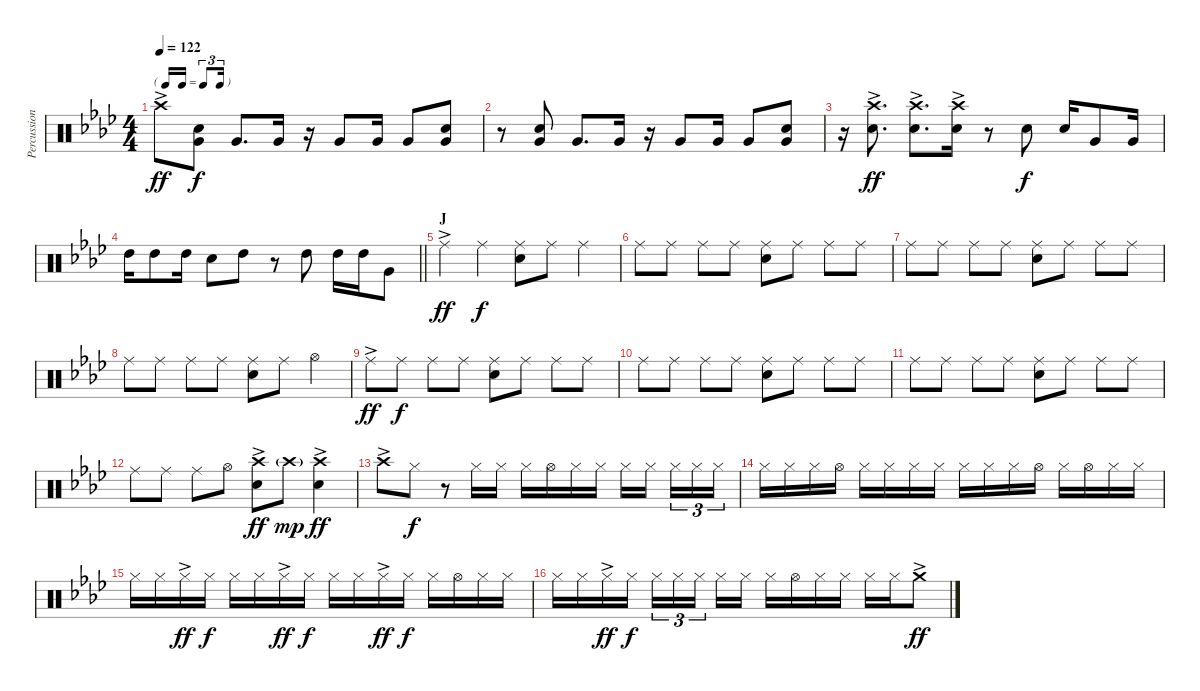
\track ("Percussion Hand" "Percussion") {instrument percussion}
\staff {score}
\articulation defaults
\ts (4 4)
\tf triplet16th
\tempo 122
\clef neutral
\ks ab "Crash high (hit)"{ac}.8{dy ff}
("Snare (hit) 2" "Very Low Tom (hit)").8{dy f} "Very Low Tom (hit)".8{d} "Very Low Tom (hit)".16 r.16 "Very Low Tom (hit)".8 "Very Low Tom (hit)".16 "Very Low Tom (hit)".8 ("Snare (hit) 2" "Very Low Tom (hit)").8 |
r.8 ("Snare (hit) 2" "Very Low Tom (hit)").8 "Very Low Tom (hit)".8{d} "Very Low Tom (hit)".16 r.16 "Very Low Tom (hit)".8 "Very Low Tom (hit)".16 "Very Low Tom (hit)".8 ("Snare (hit) 2" "Very Low Tom (hit)").8 |
r.16 ("Crash high (hit)" "Snare (hit) 2"{ac}).8{d dy ff} ("Crash high (hit)" "Snare (hit) 2"{ac}).8{d} ("Crash high (hit)" "Snare (hit) 2"{ac}).16 r.8 "Snare (hit) 2".8{dy f} "Snare (hit) 2".16 "Very Low Tom (hit)".8 "Very Low Tom (hit)".16 |
\barLineRight lightlight "High Tom (hit)".16 "High Tom (hit)".8 "High Tom (hit)".16 "Snare (hit) 2".8 "High Tom (hit)".8
r.8 "High Tom (hit)".8 "High Tom (hit)".16 "High Tom (hit)".16 "Very Low Tom (hit)".8 |
\section ("" "J")
"Ride (middle)"{ac}.4{dy ff} "Ride (middle)".4{dy f} ("Ride (middle)" "Snare (hit) 2").8 "Ride (middle)".8 "Ride (middle)".4 |
"Ride (middle)".8 "Ride (middle)".8 "Ride (middle)".8 "Ride (middle)".8 ("Ride (middle)" "Snare (hit) 2").8 "Ride (middle)".8 "Ride (middle)".8 "Ride (middle)".8 |
"Ride (middle)".8 "Ride (middle)".8 "Ride (middle)".8 "Ride (middle)".8 ("Ride (middle)" "Snare (hit) 2").8 "Ride (middle)".8 "Ride (middle)".8 "Ride (middle)".8 |
"Ride (middle)".8 "Ride (middle)".8 "Ride (middle)".8 "Ride (middle)".8 ("Ride (middle)" "Snare (hit) 2").8 "Ride (middle)".8 "Hi-Hat (open)".4 |
"Ride (middle)"{ac}.8{dy ff} "Ride (middle)".8{dy f} "Ride (middle)".8 "Ride (middle)".8 ("Ride (middle)" "Snare (hit) 2").8 "Ride (middle)".8 "Ride (middle)".8 "Ride (middle)".8 |
"Ride (middle)".8 "Ride (middle)".8 "Ride (middle)".8 "Ride (middle)".8 ("Ride (middle)" "Snare (hit) 2").8 "Ride (middle)".8 "Ride (middle)".8 "Ride (middle)".8 |
"Ride (middle)".8 "Ride (middle)".8 "Ride (middle)".8 "Ride (middle)".8 ("Ride (middle)" "Snare (hit) 2").8 "Ride (middle)".8 "Ride (middle)".8 "Ride (middle)".8 |
"Ride (middle)".8 "Ride (middle)".8 "Ride (middle)".8 "Hi-Hat (open)".8 ("Crash high (hit)" "Snare (hit) 2"{ac}).8{dy ff} "Crash high (hit)"{g}.8{dy mp} ("Crash high (hit)" "Snare (hit) 2"{ac}).4{dy ff} |
"Crash high (hit)"{ac}.8 "Hi-Hat (closed)".8{dy f} r.8 "Hi-Hat (closed)".16 "Hi-Hat (closed)".16 "Hi-Hat (closed)".16 "Hi-Hat (open)".16 "Hi-Hat (closed)".16 "Hi-Hat (closed)".16 "Hi-Hat (closed)".16 "Hi-Hat (closed)".16{beam splitsecondary} "Hi-Hat (closed)".16{tu (3 2)} "Hi-Hat (closed)".16{tu (3 2)} "Hi-Hat (closed)".16{tu (3 2)} |
"Hi-Hat (closed)".16 "Hi-Hat (closed)".16 "Hi-Hat (closed)".16 "Hi-Hat (open)".16 "Hi-Hat (closed)".16 "Hi-Hat (closed)".16 "Hi-Hat (closed)".16 "Hi-Hat (closed)".16 "Hi-Hat (closed)".16 "Hi-Hat (closed)".16 "Hi-Hat (closed)".16 "Hi-Hat (open)".16 "Hi-Hat (closed)".16 "Hi-Hat (open)".16 "Hi-Hat (closed)".16 "Hi-Hat (closed)".16 |
"Hi-Hat (closed)".16 "Hi-Hat (closed)".16 "Hi-Hat (closed)"{ac}.16{dy ff} "Hi-Hat (closed)".16{dy f} "Hi-Hat (closed)".16 "Hi-Hat (closed)".16 "Hi-Hat (closed)"{ac}.16{dy ff} "Hi-Hat (closed)".16{dy f} "Hi-Hat (closed)".16 "Hi-Hat (closed)".16 "Hi-Hat (closed)"{ac}.16{dy ff} "Hi-Hat (closed)".16{dy f} "Hi-Hat (closed)".16 "Hi-Hat (open)".16 "Hi-Hat (closed)".16 "Hi-Hat (closed)".16 |
"Hi-Hat (closed)".16 "Hi-Hat (closed)".16 "Hi-Hat (closed)"{ac}.16{dy ff} "Hi-Hat (closed)".16{dy f} "Hi-Hat (closed)".16{tu (3 2)} "Hi-Hat (closed)".16{tu (3 2)} "Hi-Hat (closed)".16{tu (3 2) beam splitsecondary} "Hi-Hat (closed)".16 "Hi-Hat (closed)".16 "Hi-Hat (closed)".16 "Hi-Hat (open)".16 "Hi-Hat (closed)".16 "Hi-Hat (closed)".16 "Hi-Hat (closed)".16 "Hi-Hat (closed)".16 "Crash medium (hit)"{ac}.8{dy ff}
